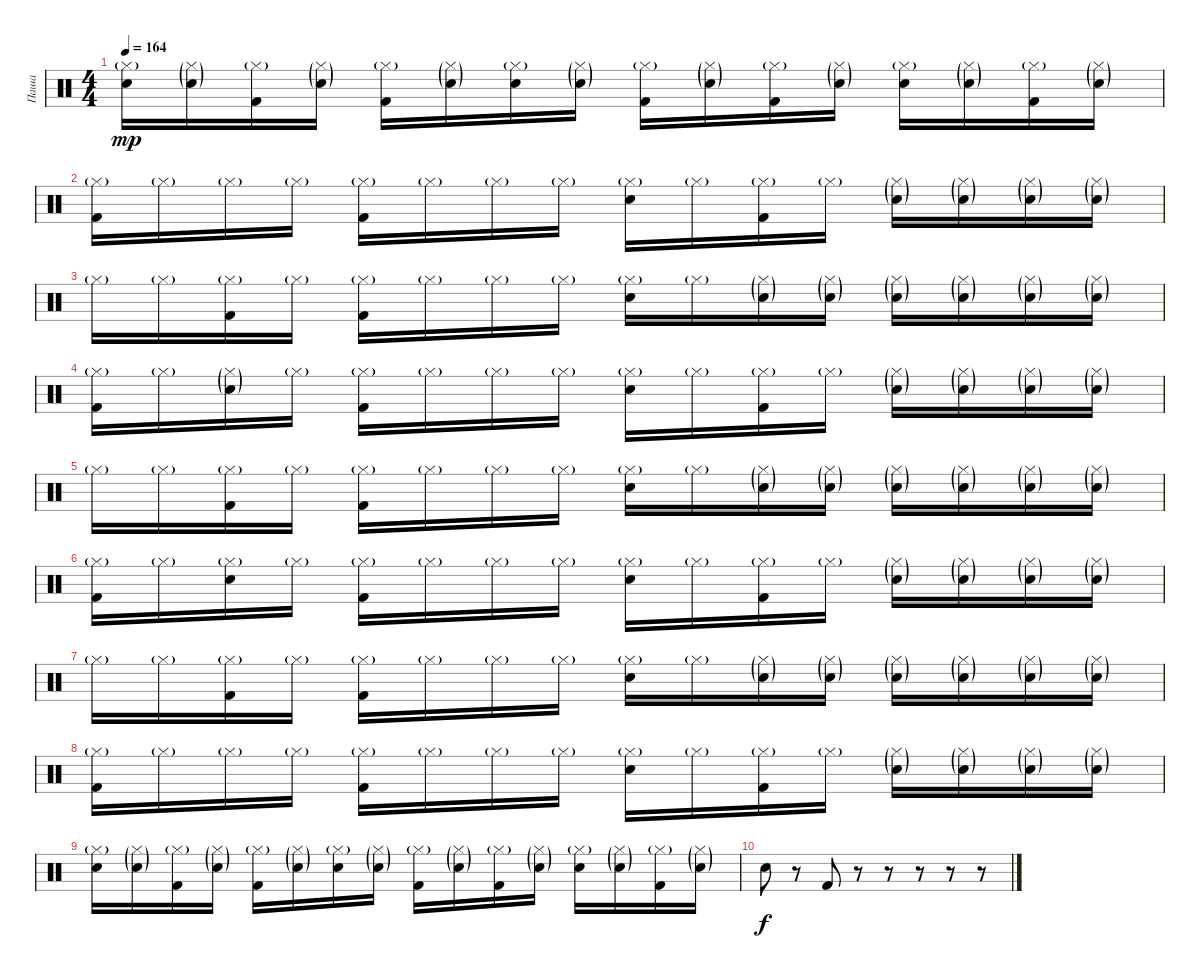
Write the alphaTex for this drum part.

\track ("Паша" "Паша") {instrument percussion}
\staff {score}
\articulation defaults
\ts (4 4)
\tempo 164
\clef neutral
\ks c
("Hi-Hat (closed)"{g} "Electric Snare (hit)").16{dy mp} ("Hi-Hat (closed)"{g} "Electric Snare (hit)"{g}).16 ("Hi-Hat (closed)"{g} "Kick (hit) 2").16 ("Hi-Hat (closed)"{g} "Electric Snare (hit)"{g}).16 ("Hi-Hat (closed)"{g} "Kick (hit) 2").16 ("Hi-Hat (closed)"{g} "Electric Snare (hit)"{g}).16 ("Hi-Hat (closed)"{g} "Electric Snare (hit)").16 ("Hi-Hat (closed)"{g} "Electric Snare (hit)"{g}).16 ("Hi-Hat (closed)"{g} "Kick (hit) 2").16 ("Hi-Hat (closed)"{g} "Electric Snare (hit)"{g}).16 ("Hi-Hat (closed)"{g} "Kick (hit) 2").16 ("Hi-Hat (closed)"{g} "Electric Snare (hit)"{g}).16 ("Hi-Hat (closed)"{g} "Electric Snare (hit)").16 ("Hi-Hat (closed)"{g} "Electric Snare (hit)"{g}).16 ("Hi-Hat (closed)"{g} "Kick (hit) 2").16 ("Hi-Hat (closed)"{g} "Electric Snare (hit)"{g}).16 |
("Hi-Hat (closed)"{g} "Kick (hit) 2").16 "Hi-Hat (closed)"{g}.16 "Hi-Hat (closed)"{g}.16 "Hi-Hat (closed)"{g}.16 ("Hi-Hat (closed)"{g} "Kick (hit) 2").16 "Hi-Hat (closed)"{g}.16 "Hi-Hat (closed)"{g}.16 "Hi-Hat (closed)"{g}.16 ("Hi-Hat (closed)"{g} "Electric Snare (hit)").16 "Hi-Hat (closed)"{g}.16 ("Hi-Hat (closed)"{g} "Kick (hit) 2").16 "Hi-Hat (closed)"{g}.16 ("Hi-Hat (closed)"{g} "Electric Snare (hit)"{g}).16 ("Hi-Hat (closed)"{g} "Electric Snare (hit)"{g}).16 ("Hi-Hat (closed)"{g} "Electric Snare (hit)"{g}).16 ("Hi-Hat (closed)"{g} "Electric Snare (hit)"{g}).16 |
"Hi-Hat (closed)"{g}.16 "Hi-Hat (closed)"{g}.16 ("Hi-Hat (closed)"{g} "Kick (hit) 2").16 "Hi-Hat (closed)"{g}.16 ("Hi-Hat (closed)"{g} "Kick (hit) 2").16 "Hi-Hat (closed)"{g}.16 "Hi-Hat (closed)"{g}.16 "Hi-Hat (closed)"{g}.16 ("Hi-Hat (closed)"{g} "Electric Snare (hit)").16 "Hi-Hat (closed)"{g}.16 ("Hi-Hat (closed)"{g} "Electric Snare (hit)"{g}).16 ("Hi-Hat (closed)"{g} "Electric Snare (hit)"{g}).16 ("Hi-Hat (closed)"{g} "Electric Snare (hit)"{g}).16 ("Hi-Hat (closed)"{g} "Electric Snare (hit)"{g}).16 ("Hi-Hat (closed)"{g} "Electric Snare (hit)"{g}).16 ("Hi-Hat (closed)"{g} "Electric Snare (hit)"{g}).16 |
("Hi-Hat (closed)"{g} "Kick (hit) 2").16 "Hi-Hat (closed)"{g}.16 ("Hi-Hat (closed)"{g} "Electric Snare (hit)"{g}).16 "Hi-Hat (closed)"{g}.16 ("Hi-Hat (closed)"{g} "Kick (hit) 2").16 "Hi-Hat (closed)"{g}.16 "Hi-Hat (closed)"{g}.16 "Hi-Hat (closed)"{g}.16 ("Hi-Hat (closed)"{g} "Electric Snare (hit)").16 "Hi-Hat (closed)"{g}.16 ("Hi-Hat (closed)"{g} "Kick (hit) 2").16 "Hi-Hat (closed)"{g}.16 ("Hi-Hat (closed)"{g} "Electric Snare (hit)"{g}).16 ("Hi-Hat (closed)"{g} "Electric Snare (hit)"{g}).16 ("Hi-Hat (closed)"{g} "Electric Snare (hit)"{g}).16 ("Hi-Hat (closed)"{g} "Electric Snare (hit)"{g}).16 |
"Hi-Hat (closed)"{g}.16 "Hi-Hat (closed)"{g}.16 ("Hi-Hat (closed)"{g} "Kick (hit) 2").16 "Hi-Hat (closed)"{g}.16 ("Hi-Hat (closed)"{g} "Kick (hit) 2").16 "Hi-Hat (closed)"{g}.16 "Hi-Hat (closed)"{g}.16 "Hi-Hat (closed)"{g}.16 ("Hi-Hat (closed)"{g} "Electric Snare (hit)").16 "Hi-Hat (closed)"{g}.16 ("Hi-Hat (closed)"{g} "Electric Snare (hit)"{g}).16 ("Hi-Hat (closed)"{g} "Electric Snare (hit)"{g}).16 ("Hi-Hat (closed)"{g} "Electric Snare (hit)"{g}).16 ("Hi-Hat (closed)"{g} "Electric Snare (hit)"{g}).16 ("Hi-Hat (closed)"{g} "Electric Snare (hit)"{g}).16 ("Hi-Hat (closed)"{g} "Electric Snare (hit)"{g}).16 |
("Hi-Hat (closed)"{g} "Kick (hit) 2").16 "Hi-Hat (closed)"{g}.16 ("Hi-Hat (closed)"{g} "Electric Snare (hit)").16 "Hi-Hat (closed)"{g}.16 ("Hi-Hat (closed)"{g} "Kick (hit) 2").16 "Hi-Hat (closed)"{g}.16 "Hi-Hat (closed)"{g}.16 "Hi-Hat (closed)"{g}.16 ("Hi-Hat (closed)"{g} "Electric Snare (hit)").16 "Hi-Hat (closed)"{g}.16 ("Hi-Hat (closed)"{g} "Kick (hit) 2").16 "Hi-Hat (closed)"{g}.16 ("Hi-Hat (closed)"{g} "Electric Snare (hit)"{g}).16 ("Hi-Hat (closed)"{g} "Electric Snare (hit)"{g}).16 ("Hi-Hat (closed)"{g} "Electric Snare (hit)"{g}).16 ("Hi-Hat (closed)"{g} "Electric Snare (hit)"{g}).16 |
"Hi-Hat (closed)"{g}.16 "Hi-Hat (closed)"{g}.16 ("Hi-Hat (closed)"{g} "Kick (hit) 2").16 "Hi-Hat (closed)"{g}.16 ("Hi-Hat (closed)"{g} "Kick (hit) 2").16 "Hi-Hat (closed)"{g}.16 "Hi-Hat (closed)"{g}.16 "Hi-Hat (closed)"{g}.16 ("Hi-Hat (closed)"{g} "Electric Snare (hit)").16 "Hi-Hat (closed)"{g}.16 ("Hi-Hat (closed)"{g} "Electric Snare (hit)"{g}).16 ("Hi-Hat (closed)"{g} "Electric Snare (hit)"{g}).16 ("Hi-Hat (closed)"{g} "Electric Snare (hit)"{g}).16 ("Hi-Hat (closed)"{g} "Electric Snare (hit)"{g}).16 ("Hi-Hat (closed)"{g} "Electric Snare (hit)"{g}).16 ("Hi-Hat (closed)"{g} "Electric Snare (hit)"{g}).16 |
("Hi-Hat (closed)"{g} "Kick (hit) 2").16 "Hi-Hat (closed)"{g}.16 "Hi-Hat (closed)"{g}.16 "Hi-Hat (closed)"{g}.16 ("Hi-Hat (closed)"{g} "Kick (hit) 2").16 "Hi-Hat (closed)"{g}.16 "Hi-Hat (closed)"{g}.16 "Hi-Hat (closed)"{g}.16 ("Hi-Hat (closed)"{g} "Electric Snare (hit)").16 "Hi-Hat (closed)"{g}.16 ("Hi-Hat (closed)"{g} "Kick (hit) 2").16 "Hi-Hat (closed)"{g}.16 ("Hi-Hat (closed)"{g} "Electric Snare (hit)"{g}).16 ("Hi-Hat (closed)"{g} "Electric Snare (hit)"{g}).16 ("Hi-Hat (closed)"{g} "Electric Snare (hit)"{g}).16 ("Hi-Hat (closed)"{g} "Electric Snare (hit)"{g}).16 |
("Hi-Hat (closed)"{g} "Electric Snare (hit)").16 ("Hi-Hat (closed)"{g} "Electric Snare (hit)"{g}).16 ("Hi-Hat (closed)"{g} "Kick (hit) 2").16 ("Hi-Hat (closed)"{g} "Electric Snare (hit)"{g}).16 ("Hi-Hat (closed)"{g} "Kick (hit) 2").16 ("Hi-Hat (closed)"{g} "Electric Snare (hit)"{g}).16 ("Hi-Hat (closed)"{g} "Electric Snare (hit)").16 ("Hi-Hat (closed)"{g} "Electric Snare (hit)"{g}).16 ("Hi-Hat (closed)"{g} "Kick (hit) 2").16 ("Hi-Hat (closed)"{g} "Electric Snare (hit)"{g}).16 ("Hi-Hat (closed)"{g} "Kick (hit) 2").16 ("Hi-Hat (closed)"{g} "Electric Snare (hit)"{g}).16 ("Hi-Hat (closed)"{g} "Electric Snare (hit)").16 ("Hi-Hat (closed)"{g} "Electric Snare (hit)"{g}).16 ("Hi-Hat (closed)"{g} "Kick (hit) 2").16 ("Hi-Hat (closed)"{g} "Electric Snare (hit)"{g}).16 |
"Electric Snare (hit)".8{dy f} r.8 "Kick (hit) 2".8 r.8 r.8 r.8 r.8 r.8
